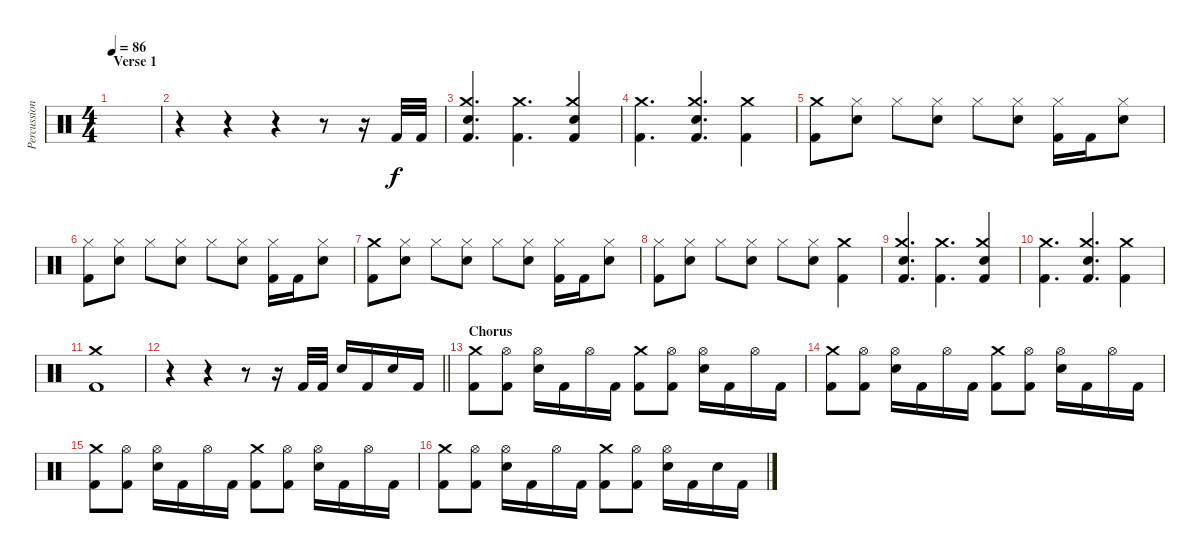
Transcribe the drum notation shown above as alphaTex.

\track ("Percussioni" "Percussion") {instrument percussion}
\staff {score}
\articulation defaults
\ts (4 4)
\section ("" "Verse 1")
\tempo 86
\clef neutral
\ks c
|
r.4 r.4 r.4 r.8 r.16 "Kick (hit) 2".32 "Kick (hit) 2".32 |
("Crash medium (hit)" "Snare (hit) 2" "Kick (hit) 2").4{d} ("Crash medium (hit)" "Kick (hit) 2").4{d} ("Crash medium (hit)" "Snare (hit) 2" "Kick (hit) 2").4 |
("Crash medium (hit)" "Kick (hit) 2").4{d} ("Crash medium (hit)" "Snare (hit) 2" "Kick (hit) 2").4{d} ("Crash medium (hit)" "Kick (hit) 2").4 |
("Crash medium (hit)" "Kick (hit) 2").8 ("Hi-Hat (closed)" "Snare (hit) 2").8 "Hi-Hat (closed)".8 ("Hi-Hat (closed)" "Snare (hit) 2").8 "Hi-Hat (closed)".8 ("Hi-Hat (closed)" "Snare (hit) 2").8 ("Hi-Hat (closed)" "Kick (hit) 2").16 "Kick (hit) 2".16 ("Hi-Hat (closed)" "Snare (hit) 2").8 |
("Hi-Hat (closed)" "Kick (hit) 2").8 ("Hi-Hat (closed)" "Snare (hit) 2").8 "Hi-Hat (closed)".8 ("Hi-Hat (closed)" "Snare (hit) 2").8 "Hi-Hat (closed)".8 ("Hi-Hat (closed)" "Snare (hit) 2").8 ("Hi-Hat (closed)" "Kick (hit) 2").16 "Kick (hit) 2".16 ("Hi-Hat (closed)" "Snare (hit) 2").8 |
("Crash medium (hit)" "Kick (hit) 2").8 ("Hi-Hat (closed)" "Snare (hit) 2").8 "Hi-Hat (closed)".8 ("Hi-Hat (closed)" "Snare (hit) 2").8 "Hi-Hat (closed)".8 ("Hi-Hat (closed)" "Snare (hit) 2").8 ("Hi-Hat (closed)" "Kick (hit) 2").16 "Kick (hit) 2".16 ("Hi-Hat (closed)" "Snare (hit) 2").8 |
("Hi-Hat (closed)" "Kick (hit) 2").8 ("Hi-Hat (closed)" "Snare (hit) 2").8 "Hi-Hat (closed)".8 ("Hi-Hat (closed)" "Snare (hit) 2").8 "Hi-Hat (closed)".8 ("Hi-Hat (closed)" "Snare (hit) 2").8 ("Crash medium (hit)" "Kick (hit) 2").4 |
("Crash medium (hit)" "Snare (hit) 2" "Kick (hit) 2").4{d} ("Crash medium (hit)" "Kick (hit) 2").4{d} ("Crash medium (hit)" "Snare (hit) 2" "Kick (hit) 2").4 |
("Crash medium (hit)" "Kick (hit) 2").4{d} ("Crash medium (hit)" "Snare (hit) 2" "Kick (hit) 2").4{d} ("Crash medium (hit)" "Kick (hit) 2").4 |
("Crash medium (hit)" "Kick (hit) 2").1 |
\barLineRight lightlight
r.4 r.4 r.8 r.16 "Kick (hit) 2".32 "Kick (hit) 2".32 "Snare (hit) 2".16 "Kick (hit) 2".16 "Snare (hit) 2".16 "Kick (hit) 2".16 |
\section ("" "Chorus")
("Crash medium (hit)" "Kick (hit) 2").8 ("Hi-Hat (open)" "Kick (hit) 2").8 ("Hi-Hat (open)" "Snare (hit) 2").16 "Kick (hit) 2".16 "Hi-Hat (open)".16 "Kick (hit) 2".16 ("Crash medium (hit)" "Kick (hit) 2").8 ("Hi-Hat (open)" "Kick (hit) 2").8 ("Hi-Hat (open)" "Snare (hit) 2").16 "Kick (hit) 2".16 "Hi-Hat (open)".16 "Kick (hit) 2".16 |
("Crash medium (hit)" "Kick (hit) 2").8 ("Hi-Hat (open)" "Kick (hit) 2").8 ("Hi-Hat (open)" "Snare (hit) 2").16 "Kick (hit) 2".16 "Hi-Hat (open)".16 "Kick (hit) 2".16 ("Crash medium (hit)" "Kick (hit) 2").8 ("Hi-Hat (open)" "Kick (hit) 2").8 ("Hi-Hat (open)" "Snare (hit) 2").16 "Kick (hit) 2".16 "Hi-Hat (open)".16 "Kick (hit) 2".16 |
("Crash medium (hit)" "Kick (hit) 2").8 ("Hi-Hat (open)" "Kick (hit) 2").8 ("Hi-Hat (open)" "Snare (hit) 2").16 "Kick (hit) 2".16 "Hi-Hat (open)".16 "Kick (hit) 2".16 ("Crash medium (hit)" "Kick (hit) 2").8 ("Hi-Hat (open)" "Kick (hit) 2").8 ("Hi-Hat (open)" "Snare (hit) 2").16 "Kick (hit) 2".16 "Hi-Hat (open)".16 "Kick (hit) 2".16 |
("Crash medium (hit)" "Kick (hit) 2").8 ("Hi-Hat (open)" "Kick (hit) 2").8 ("Hi-Hat (open)" "Snare (hit) 2").16 "Kick (hit) 2".16 "Hi-Hat (open)".16 "Kick (hit) 2".16 ("Crash medium (hit)" "Kick (hit) 2").8 ("Hi-Hat (open)" "Kick (hit) 2").8 ("Hi-Hat (open)" "Snare (hit) 2").16 "Kick (hit) 2".16 "Snare (hit) 2".16 "Kick (hit) 2".16
